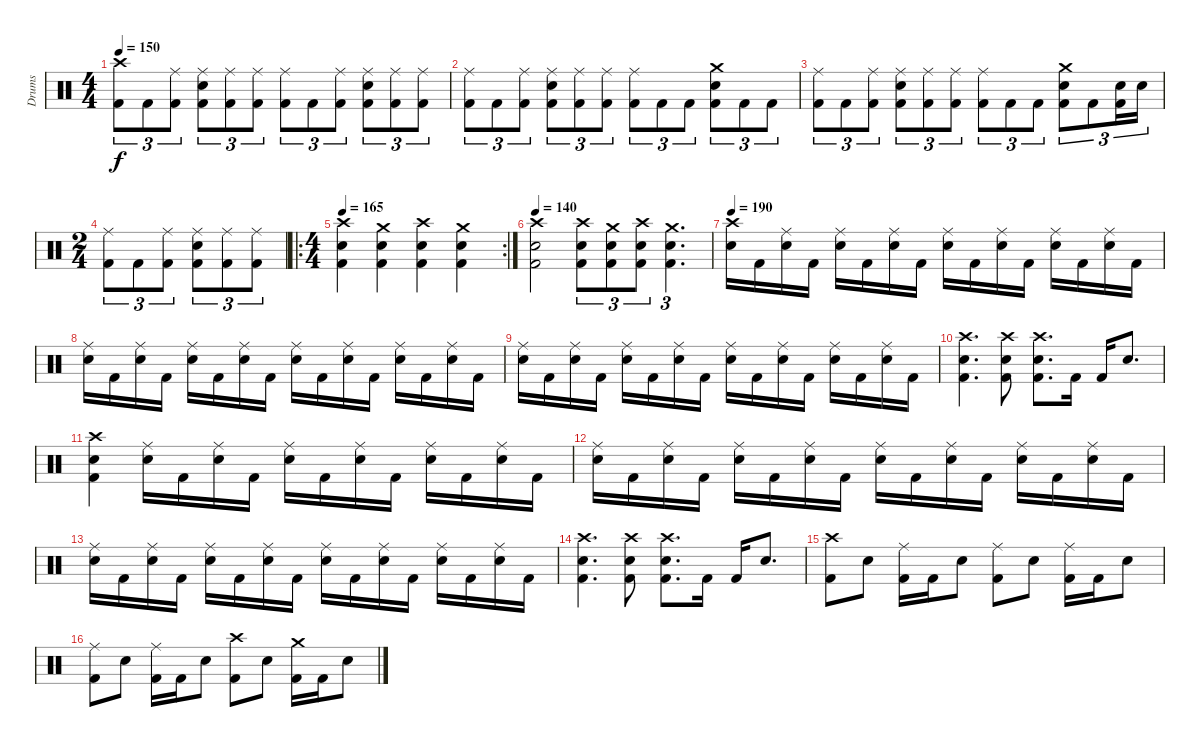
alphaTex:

\track ("Drums" "Drums") {instrument percussion}
\staff {score}
\articulation defaults
\ts (4 4)
\tempo 150
\clef neutral
\ks c
("Crash high (hit)" "Kick (hit) 2").8{tu (3 2) dy f} "Kick (hit) 2".8{tu (3 2)} ("Ride (middle)" "Kick (hit) 2").8{tu (3 2)} ("Ride (middle)" "Electric Snare (hit)" "Kick (hit) 2").8{tu (3 2)} ("Ride (middle)" "Kick (hit) 2").8{tu (3 2)} ("Ride (middle)" "Kick (hit) 2").8{tu (3 2)} ("Ride (middle)" "Kick (hit) 2").8{tu (3 2)} "Kick (hit) 2".8{tu (3 2)} ("Ride (middle)" "Kick (hit) 2").8{tu (3 2)} ("Ride (middle)" "Electric Snare (hit)" "Kick (hit) 2").8{tu (3 2)} ("Ride (middle)" "Kick (hit) 2").8{tu (3 2)} ("Ride (middle)" "Kick (hit) 2").8{tu (3 2)} |
("Ride (middle)" "Kick (hit) 2").8{tu (3 2)} "Kick (hit) 2".8{tu (3 2)} ("Ride (middle)" "Kick (hit) 2").8{tu (3 2)} ("Ride (middle)" "Electric Snare (hit)" "Kick (hit) 2").8{tu (3 2)} ("Ride (middle)" "Kick (hit) 2").8{tu (3 2)} ("Ride (middle)" "Kick (hit) 2").8{tu (3 2)} ("Ride (middle)" "Kick (hit) 2").8{tu (3 2)} "Kick (hit) 2".8{tu (3 2)} "Kick (hit) 2".8{tu (3 2)} ("Crash medium (hit)" "Electric Snare (hit)" "Kick (hit) 2").8{tu (3 2)} "Kick (hit) 2".8{tu (3 2)} "Kick (hit) 2".8{tu (3 2)} |
("Ride (middle)" "Kick (hit) 2").8{tu (3 2)} "Kick (hit) 2".8{tu (3 2)} ("Ride (middle)" "Kick (hit) 2").8{tu (3 2)} ("Ride (middle)" "Electric Snare (hit)" "Kick (hit) 2").8{tu (3 2)} ("Ride (middle)" "Kick (hit) 2").8{tu (3 2)} ("Ride (middle)" "Kick (hit) 2").8{tu (3 2)} ("Ride (middle)" "Kick (hit) 2").8{tu (3 2)} "Kick (hit) 2".8{tu (3 2)} "Kick (hit) 2".8{tu (3 2)} ("Crash medium (hit)" "Electric Snare (hit)" "Kick (hit) 2").8{tu (3 2)} "Kick (hit) 2".8{tu (3 2)} ("Electric Snare (hit)" "Kick (hit) 2").16{tu (3 2)} "Electric Snare (hit)".16{tu (3 2)} |
\ts (2 4)
("Ride (middle)" "Kick (hit) 2").8{tu (3 2)} "Kick (hit) 2".8{tu (3 2)} ("Ride (middle)" "Kick (hit) 2").8{tu (3 2)} ("Ride (middle)" "Electric Snare (hit)" "Kick (hit) 2").8{tu (3 2)} ("Ride (middle)" "Kick (hit) 2").8{tu (3 2)} ("Ride (middle)" "Kick (hit) 2").8{tu (3 2)} |
\ro
\rc 2
\ts (4 4)
\tempo 165
("Crash high (hit)" "Electric Snare (hit)" "Kick (hit) 2").4 ("Crash medium (hit)" "Electric Snare (hit)" "Kick (hit) 2").4 ("Crash high (hit)" "Electric Snare (hit)" "Kick (hit) 2").4 ("Crash medium (hit)" "Electric Snare (hit)" "Kick (hit) 2").4 |
\tempo 140
("Crash high (hit)" "Electric Snare (hit)" "Kick (hit) 2").2 ("Crash high (hit)" "Electric Snare (hit)" "Kick (hit) 2").8{tu (3 2)} ("Crash medium (hit)" "Electric Snare (hit)" "Kick (hit) 2").8{tu (3 2)} ("Crash high (hit)" "Electric Snare (hit)" "Kick (hit) 2").8{tu (3 2)} ("Crash medium (hit)" "Electric Snare (hit)" "Kick (hit) 2").4{d tu (3 2)} |
\tempo 190
("Crash high (hit)" "Electric Snare (hit)").16 "Kick (hit) 2".16 ("Ride (middle)" "Electric Snare (hit)").16 "Kick (hit) 2".16 ("Ride (middle)" "Electric Snare (hit)").16 "Kick (hit) 2".16 ("Ride (middle)" "Electric Snare (hit)").16 "Kick (hit) 2".16 ("Ride (middle)" "Electric Snare (hit)").16 "Kick (hit) 2".16 ("Ride (middle)" "Electric Snare (hit)").16 "Kick (hit) 2".16 ("Ride (middle)" "Electric Snare (hit)").16 "Kick (hit) 2".16 ("Ride (middle)" "Electric Snare (hit)").16 "Kick (hit) 2".16 |
("Ride (middle)" "Electric Snare (hit)").16 "Kick (hit) 2".16 ("Ride (middle)" "Electric Snare (hit)").16 "Kick (hit) 2".16 ("Ride (middle)" "Electric Snare (hit)").16 "Kick (hit) 2".16 ("Ride (middle)" "Electric Snare (hit)").16 "Kick (hit) 2".16 ("Ride (middle)" "Electric Snare (hit)").16 "Kick (hit) 2".16 ("Ride (middle)" "Electric Snare (hit)").16 "Kick (hit) 2".16 ("Ride (middle)" "Electric Snare (hit)").16 "Kick (hit) 2".16 ("Ride (middle)" "Electric Snare (hit)").16 "Kick (hit) 2".16 |
("Ride (middle)" "Electric Snare (hit)").16 "Kick (hit) 2".16 ("Ride (middle)" "Electric Snare (hit)").16 "Kick (hit) 2".16 ("Ride (middle)" "Electric Snare (hit)").16 "Kick (hit) 2".16 ("Ride (middle)" "Electric Snare (hit)").16 "Kick (hit) 2".16 ("Ride (middle)" "Electric Snare (hit)").16 "Kick (hit) 2".16 ("Ride (middle)" "Electric Snare (hit)").16 "Kick (hit) 2".16 ("Ride (middle)" "Electric Snare (hit)").16 "Kick (hit) 2".16 ("Ride (middle)" "Electric Snare (hit)").16 "Kick (hit) 2".16 |
("Crash high (hit)" "Electric Snare (hit)" "Kick (hit) 2").4{d} ("Crash high (hit)" "Electric Snare (hit)" "Kick (hit) 2").8 ("Crash high (hit)" "Electric Snare (hit)" "Kick (hit) 2").8{d} "Kick (hit) 2".16 "Kick (hit) 2".16 "Electric Snare (hit)".8{d} |
("Crash high (hit)" "Electric Snare (hit)" "Kick (hit) 2").4 ("Ride (middle)" "Electric Snare (hit)").16 "Kick (hit) 2".16 ("Ride (middle)" "Electric Snare (hit)").16 "Kick (hit) 2".16 ("Ride (middle)" "Electric Snare (hit)").16 "Kick (hit) 2".16 ("Ride (middle)" "Electric Snare (hit)").16 "Kick (hit) 2".16 ("Ride (middle)" "Electric Snare (hit)").16 "Kick (hit) 2".16 ("Ride (middle)" "Electric Snare (hit)").16 "Kick (hit) 2".16 |
("Ride (middle)" "Electric Snare (hit)").16 "Kick (hit) 2".16 ("Ride (middle)" "Electric Snare (hit)").16 "Kick (hit) 2".16 ("Ride (middle)" "Electric Snare (hit)").16 "Kick (hit) 2".16 ("Ride (middle)" "Electric Snare (hit)").16 "Kick (hit) 2".16 ("Ride (middle)" "Electric Snare (hit)").16 "Kick (hit) 2".16 ("Ride (middle)" "Electric Snare (hit)").16 "Kick (hit) 2".16 ("Ride (middle)" "Electric Snare (hit)").16 "Kick (hit) 2".16 ("Ride (middle)" "Electric Snare (hit)").16 "Kick (hit) 2".16 |
("Ride (middle)" "Electric Snare (hit)").16 "Kick (hit) 2".16 ("Ride (middle)" "Electric Snare (hit)").16 "Kick (hit) 2".16 ("Ride (middle)" "Electric Snare (hit)").16 "Kick (hit) 2".16 ("Ride (middle)" "Electric Snare (hit)").16 "Kick (hit) 2".16 ("Ride (middle)" "Electric Snare (hit)").16 "Kick (hit) 2".16 ("Ride (middle)" "Electric Snare (hit)").16 "Kick (hit) 2".16 ("Ride (middle)" "Electric Snare (hit)").16 "Kick (hit) 2".16 ("Ride (middle)" "Electric Snare (hit)").16 "Kick (hit) 2".16 |
("Crash high (hit)" "Electric Snare (hit)" "Kick (hit) 2").4{d} ("Crash high (hit)" "Electric Snare (hit)" "Kick (hit) 2").8 ("Crash high (hit)" "Electric Snare (hit)" "Kick (hit) 2").8{d} "Kick (hit) 2".16 "Kick (hit) 2".16 "Electric Snare (hit)".8{d} |
("Crash high (hit)" "Kick (hit) 2").8 "Electric Snare (hit)".8 ("Ride (middle)" "Kick (hit) 2").16 "Kick (hit) 2".16 "Electric Snare (hit)".8 ("Ride (middle)" "Kick (hit) 2").8 "Electric Snare (hit)".8 ("Ride (middle)" "Kick (hit) 2").16 "Kick (hit) 2".16 "Electric Snare (hit)".8 |
("Ride (middle)" "Kick (hit) 2").8 "Electric Snare (hit)".8 ("Ride (middle)" "Kick (hit) 2").16 "Kick (hit) 2".16 "Electric Snare (hit)".8 ("Crash high (hit)" "Kick (hit) 2").8 "Electric Snare (hit)".8 ("Crash medium (hit)" "Kick (hit) 2").16 "Kick (hit) 2".16 "Electric Snare (hit)".8
